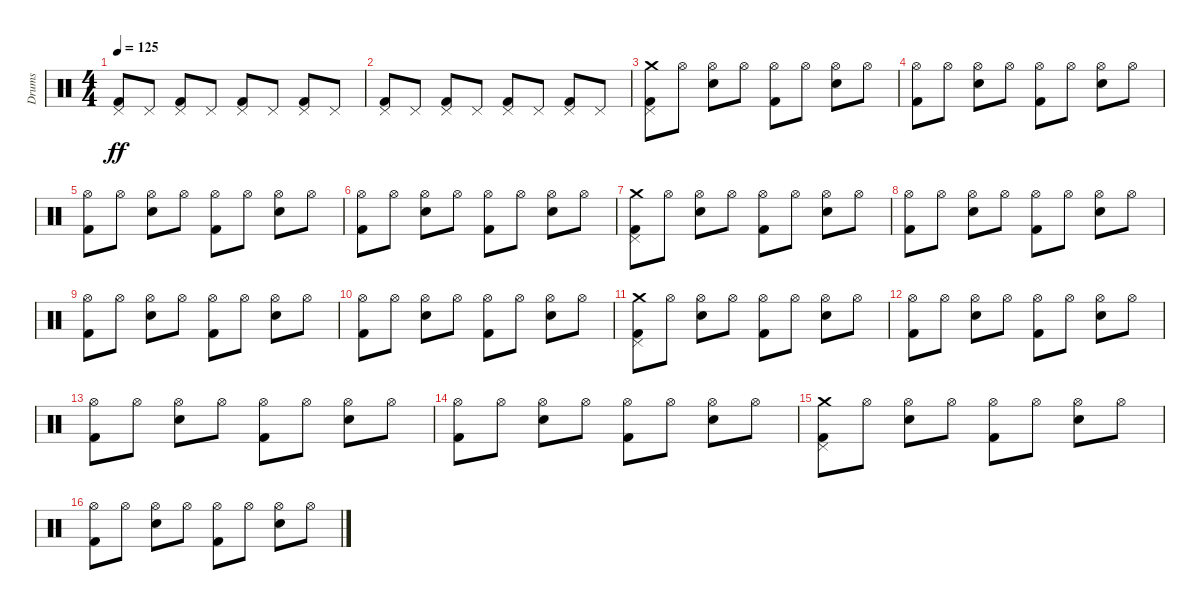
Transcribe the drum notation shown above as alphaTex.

\track ("Drums" "Drums") {instrument percussion}
\staff {score}
\articulation defaults
\ts (4 4)
\tempo 125
\clef neutral
\ks c
("Pedal Hi-Hat (hit)" "Kick (hit) 2").8{dy ff} "Pedal Hi-Hat (hit)".8 ("Pedal Hi-Hat (hit)" "Kick (hit) 2").8 "Pedal Hi-Hat (hit)".8 ("Pedal Hi-Hat (hit)" "Kick (hit) 2").8 "Pedal Hi-Hat (hit)".8 ("Pedal Hi-Hat (hit)" "Kick (hit) 2").8 "Pedal Hi-Hat (hit)".8 |
("Pedal Hi-Hat (hit)" "Kick (hit) 2").8 "Pedal Hi-Hat (hit)".8 ("Pedal Hi-Hat (hit)" "Kick (hit) 2").8 "Pedal Hi-Hat (hit)".8 ("Pedal Hi-Hat (hit)" "Kick (hit) 2").8 "Pedal Hi-Hat (hit)".8 ("Pedal Hi-Hat (hit)" "Kick (hit) 2").8 "Pedal Hi-Hat (hit)".8 |
("Pedal Hi-Hat (hit)" "Kick (hit) 2" "Crash medium (hit)").8 "Hi-Hat (open)".8 ("Hi-Hat (open)" "Snare (hit) 2").8 "Hi-Hat (open)".8 ("Hi-Hat (open)" "Kick (hit) 2").8 "Hi-Hat (open)".8 ("Hi-Hat (open)" "Snare (hit) 2").8 "Hi-Hat (open)".8 |
("Kick (hit) 2" "Hi-Hat (open)").8 "Hi-Hat (open)".8 ("Hi-Hat (open)" "Snare (hit) 2").8 "Hi-Hat (open)".8 ("Hi-Hat (open)" "Kick (hit) 2").8 "Hi-Hat (open)".8 ("Hi-Hat (open)" "Snare (hit) 2").8 "Hi-Hat (open)".8 |
("Kick (hit) 2" "Hi-Hat (open)").8 "Hi-Hat (open)".8 ("Hi-Hat (open)" "Snare (hit) 2").8 "Hi-Hat (open)".8 ("Hi-Hat (open)" "Kick (hit) 2").8 "Hi-Hat (open)".8 ("Hi-Hat (open)" "Snare (hit) 2").8 "Hi-Hat (open)".8 |
("Kick (hit) 2" "Hi-Hat (open)").8 "Hi-Hat (open)".8 ("Hi-Hat (open)" "Snare (hit) 2").8 "Hi-Hat (open)".8 ("Hi-Hat (open)" "Kick (hit) 2").8 "Hi-Hat (open)".8 ("Hi-Hat (open)" "Snare (hit) 2").8 "Hi-Hat (open)".8 |
("Pedal Hi-Hat (hit)" "Kick (hit) 2" "Crash medium (hit)").8 "Hi-Hat (open)".8 ("Hi-Hat (open)" "Snare (hit) 2").8 "Hi-Hat (open)".8 ("Hi-Hat (open)" "Kick (hit) 2").8 "Hi-Hat (open)".8 ("Hi-Hat (open)" "Snare (hit) 2").8 "Hi-Hat (open)".8 |
("Kick (hit) 2" "Hi-Hat (open)").8 "Hi-Hat (open)".8 ("Hi-Hat (open)" "Snare (hit) 2").8 "Hi-Hat (open)".8 ("Hi-Hat (open)" "Kick (hit) 2").8 "Hi-Hat (open)".8 ("Hi-Hat (open)" "Snare (hit) 2").8 "Hi-Hat (open)".8 |
("Kick (hit) 2" "Hi-Hat (open)").8 "Hi-Hat (open)".8 ("Hi-Hat (open)" "Snare (hit) 2").8 "Hi-Hat (open)".8 ("Hi-Hat (open)" "Kick (hit) 2").8 "Hi-Hat (open)".8 ("Hi-Hat (open)" "Snare (hit) 2").8 "Hi-Hat (open)".8 |
("Kick (hit) 2" "Hi-Hat (open)").8 "Hi-Hat (open)".8 ("Hi-Hat (open)" "Snare (hit) 2").8 "Hi-Hat (open)".8 ("Hi-Hat (open)" "Kick (hit) 2").8 "Hi-Hat (open)".8 ("Hi-Hat (open)" "Snare (hit) 2").8 "Hi-Hat (open)".8 |
("Pedal Hi-Hat (hit)" "Kick (hit) 2" "Crash medium (hit)").8 "Hi-Hat (open)".8 ("Hi-Hat (open)" "Snare (hit) 2").8 "Hi-Hat (open)".8 ("Hi-Hat (open)" "Kick (hit) 2").8 "Hi-Hat (open)".8 ("Hi-Hat (open)" "Snare (hit) 2").8 "Hi-Hat (open)".8 |
("Kick (hit) 2" "Hi-Hat (open)").8 "Hi-Hat (open)".8 ("Hi-Hat (open)" "Snare (hit) 2").8 "Hi-Hat (open)".8 ("Hi-Hat (open)" "Kick (hit) 2").8 "Hi-Hat (open)".8 ("Hi-Hat (open)" "Snare (hit) 2").8 "Hi-Hat (open)".8 |
("Kick (hit) 2" "Hi-Hat (open)").8 "Hi-Hat (open)".8 ("Hi-Hat (open)" "Snare (hit) 2").8 "Hi-Hat (open)".8 ("Hi-Hat (open)" "Kick (hit) 2").8 "Hi-Hat (open)".8 ("Hi-Hat (open)" "Snare (hit) 2").8 "Hi-Hat (open)".8 |
("Kick (hit) 2" "Hi-Hat (open)").8 "Hi-Hat (open)".8 ("Hi-Hat (open)" "Snare (hit) 2").8 "Hi-Hat (open)".8 ("Hi-Hat (open)" "Kick (hit) 2").8 "Hi-Hat (open)".8 ("Hi-Hat (open)" "Snare (hit) 2").8 "Hi-Hat (open)".8 |
("Pedal Hi-Hat (hit)" "Kick (hit) 2" "Crash medium (hit)").8 "Hi-Hat (open)".8 ("Hi-Hat (open)" "Snare (hit) 2").8 "Hi-Hat (open)".8 ("Hi-Hat (open)" "Kick (hit) 2").8 "Hi-Hat (open)".8 ("Hi-Hat (open)" "Snare (hit) 2").8 "Hi-Hat (open)".8 |
("Kick (hit) 2" "Hi-Hat (open)").8 "Hi-Hat (open)".8 ("Hi-Hat (open)" "Snare (hit) 2").8 "Hi-Hat (open)".8 ("Hi-Hat (open)" "Kick (hit) 2").8 "Hi-Hat (open)".8 ("Hi-Hat (open)" "Snare (hit) 2").8 "Hi-Hat (open)".8
